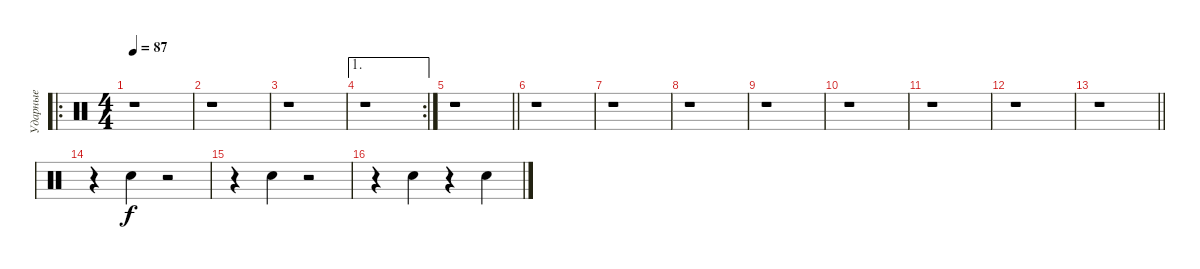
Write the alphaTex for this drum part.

\track ("Ударные" "Ударные") {instrument percussion}
\staff {score}
\articulation defaults
\ro
\ts (4 4)
\tempo 87
\clef neutral
\ks c
r.1{dy f} |
r.1 |
r.1 |
\ae 1
\rc 2
r.1 |
\barLineRight lightlight
r.1 |
r.1 |
r.1 |
r.1 |
r.1 |
r.1 |
r.1 |
r.1 |
\barLineRight lightlight
r.1 |
r.4 "Snare (hit) 2".4 r.2 |
r.4 "Snare (hit) 2".4 r.2 |
r.4 "Snare (hit) 2".4 r.4 "Snare (hit) 2".4
